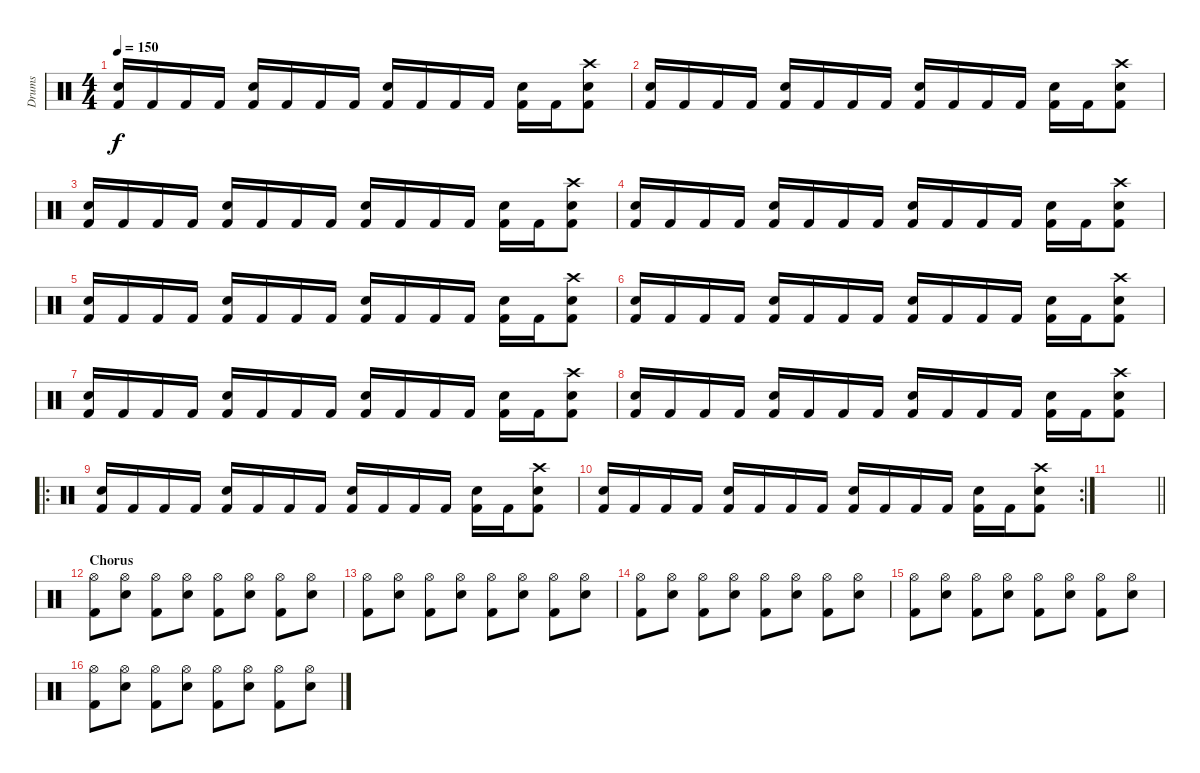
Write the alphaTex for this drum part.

\track ("Drums" "Drums") {instrument percussion}
\staff {score}
\articulation defaults
\ts (4 4)
\tempo 150
\clef neutral
\ks c
("Snare (hit) 2" "Kick (hit) 2").16{dy f} "Kick (hit) 2".16 "Kick (hit) 2".16 "Kick (hit) 2".16 ("Snare (hit) 2" "Kick (hit) 2").16 "Kick (hit) 2".16 "Kick (hit) 2".16 "Kick (hit) 2".16 ("Snare (hit) 2" "Kick (hit) 2").16 "Kick (hit) 2".16 "Kick (hit) 2".16 "Kick (hit) 2".16 ("Snare (hit) 2" "Kick (hit) 2").16 "Kick (hit) 2".16 ("Crash high (hit)" "Snare (hit) 2" "Kick (hit) 2").8 |
("Snare (hit) 2" "Kick (hit) 2").16 "Kick (hit) 2".16 "Kick (hit) 2".16 "Kick (hit) 2".16 ("Snare (hit) 2" "Kick (hit) 2").16 "Kick (hit) 2".16 "Kick (hit) 2".16 "Kick (hit) 2".16 ("Snare (hit) 2" "Kick (hit) 2").16 "Kick (hit) 2".16 "Kick (hit) 2".16 "Kick (hit) 2".16 ("Snare (hit) 2" "Kick (hit) 2").16 "Kick (hit) 2".16 ("Crash high (hit)" "Snare (hit) 2" "Kick (hit) 2").8 |
("Snare (hit) 2" "Kick (hit) 2").16 "Kick (hit) 2".16 "Kick (hit) 2".16 "Kick (hit) 2".16 ("Snare (hit) 2" "Kick (hit) 2").16 "Kick (hit) 2".16 "Kick (hit) 2".16 "Kick (hit) 2".16 ("Snare (hit) 2" "Kick (hit) 2").16 "Kick (hit) 2".16 "Kick (hit) 2".16 "Kick (hit) 2".16 ("Snare (hit) 2" "Kick (hit) 2").16 "Kick (hit) 2".16 ("Crash high (hit)" "Snare (hit) 2" "Kick (hit) 2").8 |
("Snare (hit) 2" "Kick (hit) 2").16 "Kick (hit) 2".16 "Kick (hit) 2".16 "Kick (hit) 2".16 ("Snare (hit) 2" "Kick (hit) 2").16 "Kick (hit) 2".16 "Kick (hit) 2".16 "Kick (hit) 2".16 ("Snare (hit) 2" "Kick (hit) 2").16 "Kick (hit) 2".16 "Kick (hit) 2".16 "Kick (hit) 2".16 ("Snare (hit) 2" "Kick (hit) 2").16 "Kick (hit) 2".16 ("Crash high (hit)" "Snare (hit) 2" "Kick (hit) 2").8 |
("Snare (hit) 2" "Kick (hit) 2").16 "Kick (hit) 2".16 "Kick (hit) 2".16 "Kick (hit) 2".16 ("Snare (hit) 2" "Kick (hit) 2").16 "Kick (hit) 2".16 "Kick (hit) 2".16 "Kick (hit) 2".16 ("Snare (hit) 2" "Kick (hit) 2").16 "Kick (hit) 2".16 "Kick (hit) 2".16 "Kick (hit) 2".16 ("Snare (hit) 2" "Kick (hit) 2").16 "Kick (hit) 2".16 ("Crash high (hit)" "Snare (hit) 2" "Kick (hit) 2").8 |
("Snare (hit) 2" "Kick (hit) 2").16 "Kick (hit) 2".16 "Kick (hit) 2".16 "Kick (hit) 2".16 ("Snare (hit) 2" "Kick (hit) 2").16 "Kick (hit) 2".16 "Kick (hit) 2".16 "Kick (hit) 2".16 ("Snare (hit) 2" "Kick (hit) 2").16 "Kick (hit) 2".16 "Kick (hit) 2".16 "Kick (hit) 2".16 ("Snare (hit) 2" "Kick (hit) 2").16 "Kick (hit) 2".16 ("Crash high (hit)" "Snare (hit) 2" "Kick (hit) 2").8 |
("Snare (hit) 2" "Kick (hit) 2").16 "Kick (hit) 2".16 "Kick (hit) 2".16 "Kick (hit) 2".16 ("Snare (hit) 2" "Kick (hit) 2").16 "Kick (hit) 2".16 "Kick (hit) 2".16 "Kick (hit) 2".16 ("Snare (hit) 2" "Kick (hit) 2").16 "Kick (hit) 2".16 "Kick (hit) 2".16 "Kick (hit) 2".16 ("Snare (hit) 2" "Kick (hit) 2").16 "Kick (hit) 2".16 ("Crash high (hit)" "Snare (hit) 2" "Kick (hit) 2").8 |
("Snare (hit) 2" "Kick (hit) 2").16 "Kick (hit) 2".16 "Kick (hit) 2".16 "Kick (hit) 2".16 ("Snare (hit) 2" "Kick (hit) 2").16 "Kick (hit) 2".16 "Kick (hit) 2".16 "Kick (hit) 2".16 ("Snare (hit) 2" "Kick (hit) 2").16 "Kick (hit) 2".16 "Kick (hit) 2".16 "Kick (hit) 2".16 ("Snare (hit) 2" "Kick (hit) 2").16 "Kick (hit) 2".16 ("Crash high (hit)" "Snare (hit) 2" "Kick (hit) 2").8 |
\ro
("Snare (hit) 2" "Kick (hit) 2").16 "Kick (hit) 2".16 "Kick (hit) 2".16 "Kick (hit) 2".16 ("Snare (hit) 2" "Kick (hit) 2").16 "Kick (hit) 2".16 "Kick (hit) 2".16 "Kick (hit) 2".16 ("Snare (hit) 2" "Kick (hit) 2").16 "Kick (hit) 2".16 "Kick (hit) 2".16 "Kick (hit) 2".16 ("Snare (hit) 2" "Kick (hit) 2").16 "Kick (hit) 2".16 ("Crash high (hit)" "Snare (hit) 2" "Kick (hit) 2").8 |
\rc 2
("Snare (hit) 2" "Kick (hit) 2").16 "Kick (hit) 2".16 "Kick (hit) 2".16 "Kick (hit) 2".16 ("Snare (hit) 2" "Kick (hit) 2").16 "Kick (hit) 2".16 "Kick (hit) 2".16 "Kick (hit) 2".16 ("Snare (hit) 2" "Kick (hit) 2").16 "Kick (hit) 2".16 "Kick (hit) 2".16 "Kick (hit) 2".16 ("Snare (hit) 2" "Kick (hit) 2").16 "Kick (hit) 2".16 ("Crash high (hit)" "Snare (hit) 2" "Kick (hit) 2").8 |
\barLineRight lightlight
|
\section ("" "Chorus")
("Hi-Hat (open)" "Kick (hit) 2").8 ("Hi-Hat (open)" "Snare (hit) 2").8 ("Hi-Hat (open)" "Kick (hit) 2").8 ("Hi-Hat (open)" "Snare (hit) 2").8 ("Hi-Hat (open)" "Kick (hit) 2").8 ("Hi-Hat (open)" "Snare (hit) 2").8 ("Hi-Hat (open)" "Kick (hit) 2").8 ("Hi-Hat (open)" "Snare (hit) 2").8 |
("Hi-Hat (open)" "Kick (hit) 2").8 ("Hi-Hat (open)" "Snare (hit) 2").8 ("Hi-Hat (open)" "Kick (hit) 2").8 ("Hi-Hat (open)" "Snare (hit) 2").8 ("Hi-Hat (open)" "Kick (hit) 2").8 ("Hi-Hat (open)" "Snare (hit) 2").8 ("Hi-Hat (open)" "Kick (hit) 2").8 ("Hi-Hat (open)" "Snare (hit) 2").8 |
("Hi-Hat (open)" "Kick (hit) 2").8 ("Hi-Hat (open)" "Snare (hit) 2").8 ("Hi-Hat (open)" "Kick (hit) 2").8 ("Hi-Hat (open)" "Snare (hit) 2").8 ("Hi-Hat (open)" "Kick (hit) 2").8 ("Hi-Hat (open)" "Snare (hit) 2").8 ("Hi-Hat (open)" "Kick (hit) 2").8 ("Hi-Hat (open)" "Snare (hit) 2").8 |
("Hi-Hat (open)" "Kick (hit) 2").8 ("Hi-Hat (open)" "Snare (hit) 2").8 ("Hi-Hat (open)" "Kick (hit) 2").8 ("Hi-Hat (open)" "Snare (hit) 2").8 ("Hi-Hat (open)" "Kick (hit) 2").8 ("Hi-Hat (open)" "Snare (hit) 2").8 ("Hi-Hat (open)" "Kick (hit) 2").8 ("Hi-Hat (open)" "Snare (hit) 2").8 |
("Hi-Hat (open)" "Kick (hit) 2").8 ("Hi-Hat (open)" "Snare (hit) 2").8 ("Hi-Hat (open)" "Kick (hit) 2").8 ("Hi-Hat (open)" "Snare (hit) 2").8 ("Hi-Hat (open)" "Kick (hit) 2").8 ("Hi-Hat (open)" "Snare (hit) 2").8 ("Hi-Hat (open)" "Kick (hit) 2").8 ("Hi-Hat (open)" "Snare (hit) 2").8
